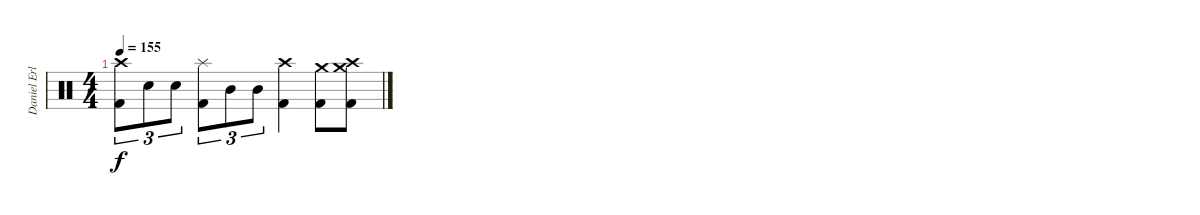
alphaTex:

\track ("Daniel Erlandsson" "Daniel Erl") {instrument percussion}
\staff {score}
\articulation defaults
\ts (4 4)
\tempo 155
\clef neutral
\ks c
("Crash high (hit)" "Kick (hit) 2").8{tu (3 2) dy f} "Snare (hit) 2".8{tu (3 2)} "Snare (hit) 2".8{tu (3 2)} ("Splash (hit)" "Kick (hit) 2").8{tu (3 2)} "Mid Tom (hit)".8{tu (3 2)} "Mid Tom (hit)".8{tu (3 2)} ("Crash high (hit)" "Kick (hit) 2").4 ("Crash medium (hit)" "Kick (hit) 2").8 ("Crash high (hit)" "Crash medium (hit)" "Kick (hit) 2").8
